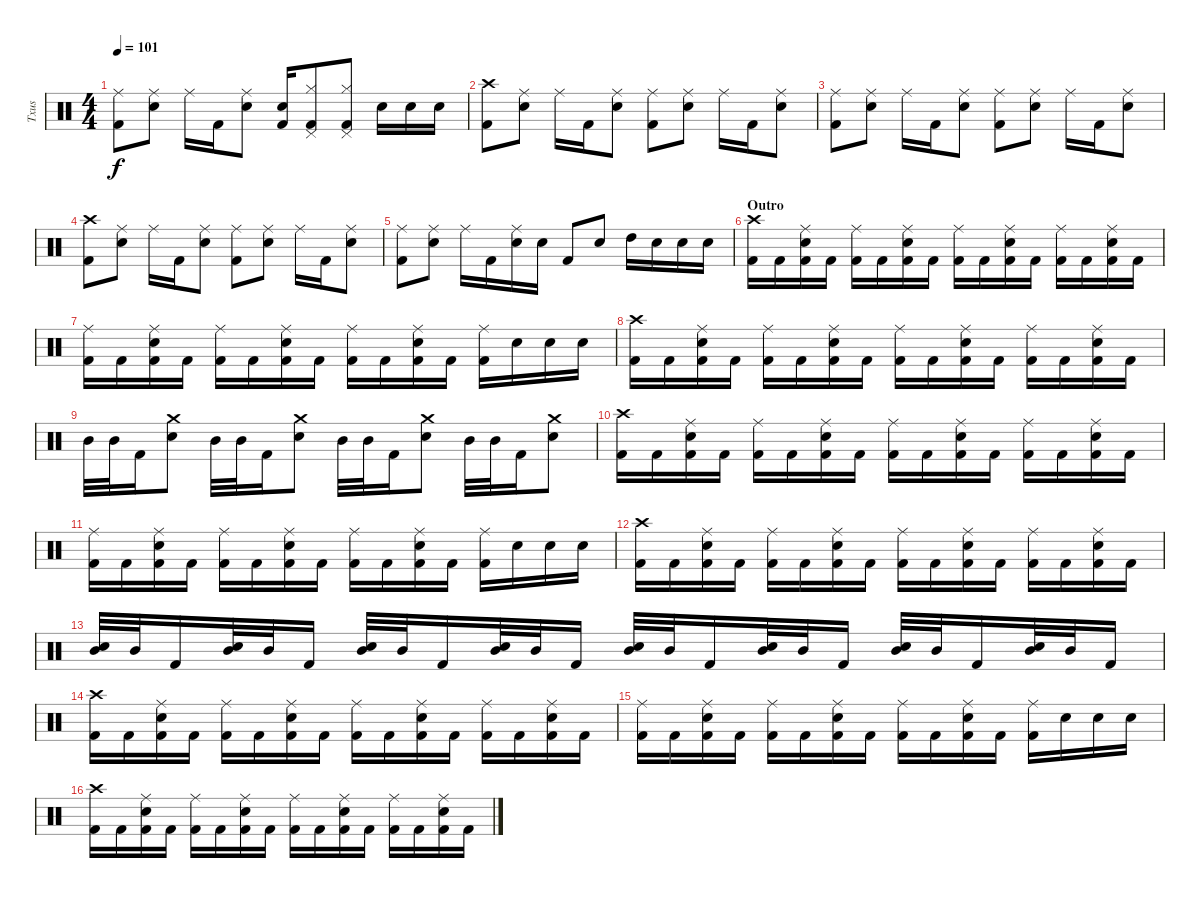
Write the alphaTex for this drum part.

\track ("Txus" "Txus") {instrument percussion}
\staff {score}
\articulation defaults
\ts (4 4)
\tempo 101
\clef neutral
\ks c
("Kick (hit) 2" "Ride (middle)").8{dy f} ("Electric Snare (hit)" "Ride (middle)").8 "Ride (middle)".16 "Kick (hit) 2".16 ("Electric Snare (hit)" "Ride (middle)").8 ("Kick (hit) 2" "Electric Snare (hit)").16 ("Kick (hit) 2" "Hi-Hat (closed)" "Pedal Hi-Hat (hit)").8 ("Kick (hit) 2" "Hi-Hat (closed)" "Pedal Hi-Hat (hit)").8 "Electric Snare (hit)".16 "Electric Snare (hit)".16 "Electric Snare (hit)".16 |
("Kick (hit) 2" "Crash high (hit)").8 ("Electric Snare (hit)" "Ride (middle)").8 "Ride (middle)".16 "Kick (hit) 2".16 ("Electric Snare (hit)" "Ride (middle)").8 ("Kick (hit) 2" "Ride (middle)").8 ("Electric Snare (hit)" "Ride (middle)").8 "Ride (middle)".16 "Kick (hit) 2".16 ("Electric Snare (hit)" "Ride (middle)").8 |
("Kick (hit) 2" "Ride (middle)").8 ("Electric Snare (hit)" "Ride (middle)").8 "Ride (middle)".16 "Kick (hit) 2".16 ("Electric Snare (hit)" "Ride (middle)").8 ("Kick (hit) 2" "Ride (middle)").8 ("Electric Snare (hit)" "Ride (middle)").8 "Ride (middle)".16 "Kick (hit) 2".16 ("Electric Snare (hit)" "Ride (middle)").8 |
("Kick (hit) 2" "Crash high (hit)").8 ("Electric Snare (hit)" "Ride (middle)").8 "Ride (middle)".16 "Kick (hit) 2".16 ("Electric Snare (hit)" "Ride (middle)").8 ("Kick (hit) 2" "Ride (middle)").8 ("Electric Snare (hit)" "Ride (middle)").8 "Ride (middle)".16 "Kick (hit) 2".16 ("Electric Snare (hit)" "Ride (middle)").8 |
("Kick (hit) 2" "Ride (middle)").8 ("Electric Snare (hit)" "Ride (middle)").8 "Ride (middle)".16 "Kick (hit) 2".16 ("Electric Snare (hit)" "Ride (middle)").16 "Electric Snare (hit)".16 "Kick (hit) 2".8 "Electric Snare (hit)".8 "High Tom (hit)".16 "Electric Snare (hit)".16 "Electric Snare (hit)".16 "Electric Snare (hit)".16 |
\section ("" "Outro")
("Kick (hit) 2" "Crash high (hit)").16 "Kick (hit) 2".16 ("Kick (hit) 2" "Electric Snare (hit)" "Ride (middle)").16 "Kick (hit) 2".16 ("Kick (hit) 2" "Ride (middle)").16 "Kick (hit) 2".16 ("Kick (hit) 2" "Electric Snare (hit)" "Ride (middle)").16 "Kick (hit) 2".16 ("Kick (hit) 2" "Ride (middle)").16 "Kick (hit) 2".16 ("Kick (hit) 2" "Electric Snare (hit)" "Ride (middle)").16 "Kick (hit) 2".16 ("Kick (hit) 2" "Ride (middle)").16 "Kick (hit) 2".16 ("Kick (hit) 2" "Electric Snare (hit)" "Ride (middle)").16 "Kick (hit) 2".16 |
("Kick (hit) 2" "Ride (middle)").16 "Kick (hit) 2".16 ("Kick (hit) 2" "Electric Snare (hit)" "Ride (middle)").16 "Kick (hit) 2".16 ("Kick (hit) 2" "Ride (middle)").16 "Kick (hit) 2".16 ("Kick (hit) 2" "Electric Snare (hit)" "Ride (middle)").16 "Kick (hit) 2".16 ("Kick (hit) 2" "Ride (middle)").16 "Kick (hit) 2".16 ("Kick (hit) 2" "Electric Snare (hit)" "Ride (middle)").16 "Kick (hit) 2".16 ("Kick (hit) 2" "Ride (middle)").16 "Electric Snare (hit)".16 "Electric Snare (hit)".16 "Electric Snare (hit)".16 |
("Kick (hit) 2" "Crash high (hit)").16 "Kick (hit) 2".16 ("Kick (hit) 2" "Electric Snare (hit)" "Ride (middle)").16 "Kick (hit) 2".16 ("Kick (hit) 2" "Ride (middle)").16 "Kick (hit) 2".16 ("Kick (hit) 2" "Electric Snare (hit)" "Ride (middle)").16 "Kick (hit) 2".16 ("Kick (hit) 2" "Ride (middle)").16 "Kick (hit) 2".16 ("Kick (hit) 2" "Electric Snare (hit)" "Ride (middle)").16 "Kick (hit) 2".16 ("Kick (hit) 2" "Ride (middle)").16 "Kick (hit) 2".16 ("Kick (hit) 2" "Electric Snare (hit)" "Ride (middle)").16 "Kick (hit) 2".16 |
"Mid Tom (hit)".32 "Mid Tom (hit)".32 "Kick (hit) 2".16 ("Electric Snare (hit)" "Crash medium (hit)").8 "Mid Tom (hit)".32 "Mid Tom (hit)".32 "Kick (hit) 2".16 ("Electric Snare (hit)" "Crash medium (hit)").8 "Mid Tom (hit)".32 "Mid Tom (hit)".32 "Kick (hit) 2".16 ("Electric Snare (hit)" "Crash medium (hit)").8 "Mid Tom (hit)".32 "Mid Tom (hit)".32 "Kick (hit) 2".16 ("Electric Snare (hit)" "Crash medium (hit)").8 |
("Kick (hit) 2" "Crash high (hit)").16 "Kick (hit) 2".16 ("Kick (hit) 2" "Electric Snare (hit)" "Ride (middle)").16 "Kick (hit) 2".16 ("Kick (hit) 2" "Ride (middle)").16 "Kick (hit) 2".16 ("Kick (hit) 2" "Electric Snare (hit)" "Ride (middle)").16 "Kick (hit) 2".16 ("Kick (hit) 2" "Ride (middle)").16 "Kick (hit) 2".16 ("Kick (hit) 2" "Electric Snare (hit)" "Ride (middle)").16 "Kick (hit) 2".16 ("Kick (hit) 2" "Ride (middle)").16 "Kick (hit) 2".16 ("Kick (hit) 2" "Electric Snare (hit)" "Ride (middle)").16 "Kick (hit) 2".16 |
("Kick (hit) 2" "Ride (middle)").16 "Kick (hit) 2".16 ("Kick (hit) 2" "Electric Snare (hit)" "Ride (middle)").16 "Kick (hit) 2".16 ("Kick (hit) 2" "Ride (middle)").16 "Kick (hit) 2".16 ("Kick (hit) 2" "Electric Snare (hit)" "Ride (middle)").16 "Kick (hit) 2".16 ("Kick (hit) 2" "Ride (middle)").16 "Kick (hit) 2".16 ("Kick (hit) 2" "Electric Snare (hit)" "Ride (middle)").16 "Kick (hit) 2".16 ("Kick (hit) 2" "Ride (middle)").16 "Electric Snare (hit)".16 "Electric Snare (hit)".16 "Electric Snare (hit)".16 |
("Kick (hit) 2" "Crash high (hit)").16 "Kick (hit) 2".16 ("Kick (hit) 2" "Electric Snare (hit)" "Ride (middle)").16 "Kick (hit) 2".16 ("Kick (hit) 2" "Ride (middle)").16 "Kick (hit) 2".16 ("Kick (hit) 2" "Electric Snare (hit)" "Ride (middle)").16 "Kick (hit) 2".16 ("Kick (hit) 2" "Ride (middle)").16 "Kick (hit) 2".16 ("Kick (hit) 2" "Electric Snare (hit)" "Ride (middle)").16 "Kick (hit) 2".16 ("Kick (hit) 2" "Ride (middle)").16 "Kick (hit) 2".16 ("Kick (hit) 2" "Electric Snare (hit)" "Ride (middle)").16 "Kick (hit) 2".16 |
("Electric Snare (hit)" "Mid Tom (hit)").32 "Mid Tom (hit)".32 "Kick (hit) 2".16 ("Electric Snare (hit)" "Mid Tom (hit)").32 "Mid Tom (hit)".32 "Kick (hit) 2".16 ("Electric Snare (hit)" "Mid Tom (hit)").32 "Mid Tom (hit)".32 "Kick (hit) 2".16 ("Electric Snare (hit)" "Mid Tom (hit)").32 "Mid Tom (hit)".32 "Kick (hit) 2".16 ("Electric Snare (hit)" "Mid Tom (hit)").32 "Mid Tom (hit)".32 "Kick (hit) 2".16 ("Electric Snare (hit)" "Mid Tom (hit)").32 "Mid Tom (hit)".32 "Kick (hit) 2".16 ("Electric Snare (hit)" "Mid Tom (hit)").32 "Mid Tom (hit)".32 "Kick (hit) 2".16 ("Electric Snare (hit)" "Mid Tom (hit)").32 "Mid Tom (hit)".32 "Kick (hit) 2".16 |
("Kick (hit) 2" "Crash high (hit)").16 "Kick (hit) 2".16 ("Kick (hit) 2" "Electric Snare (hit)" "Ride (middle)").16 "Kick (hit) 2".16 ("Kick (hit) 2" "Ride (middle)").16 "Kick (hit) 2".16 ("Kick (hit) 2" "Electric Snare (hit)" "Ride (middle)").16 "Kick (hit) 2".16 ("Kick (hit) 2" "Ride (middle)").16 "Kick (hit) 2".16 ("Kick (hit) 2" "Electric Snare (hit)" "Ride (middle)").16 "Kick (hit) 2".16 ("Kick (hit) 2" "Ride (middle)").16 "Kick (hit) 2".16 ("Kick (hit) 2" "Electric Snare (hit)" "Ride (middle)").16 "Kick (hit) 2".16 |
("Kick (hit) 2" "Ride (middle)").16 "Kick (hit) 2".16 ("Kick (hit) 2" "Electric Snare (hit)" "Ride (middle)").16 "Kick (hit) 2".16 ("Kick (hit) 2" "Ride (middle)").16 "Kick (hit) 2".16 ("Kick (hit) 2" "Electric Snare (hit)" "Ride (middle)").16 "Kick (hit) 2".16 ("Kick (hit) 2" "Ride (middle)").16 "Kick (hit) 2".16 ("Kick (hit) 2" "Electric Snare (hit)" "Ride (middle)").16 "Kick (hit) 2".16 ("Kick (hit) 2" "Ride (middle)").16 "Electric Snare (hit)".16 "Electric Snare (hit)".16 "Electric Snare (hit)".16 |
("Kick (hit) 2" "Crash high (hit)").16 "Kick (hit) 2".16 ("Kick (hit) 2" "Electric Snare (hit)" "Ride (middle)").16 "Kick (hit) 2".16 ("Kick (hit) 2" "Ride (middle)").16 "Kick (hit) 2".16 ("Kick (hit) 2" "Electric Snare (hit)" "Ride (middle)").16 "Kick (hit) 2".16 ("Kick (hit) 2" "Ride (middle)").16 "Kick (hit) 2".16 ("Kick (hit) 2" "Electric Snare (hit)" "Ride (middle)").16 "Kick (hit) 2".16 ("Kick (hit) 2" "Ride (middle)").16 "Kick (hit) 2".16 ("Kick (hit) 2" "Electric Snare (hit)" "Ride (middle)").16 "Kick (hit) 2".16
